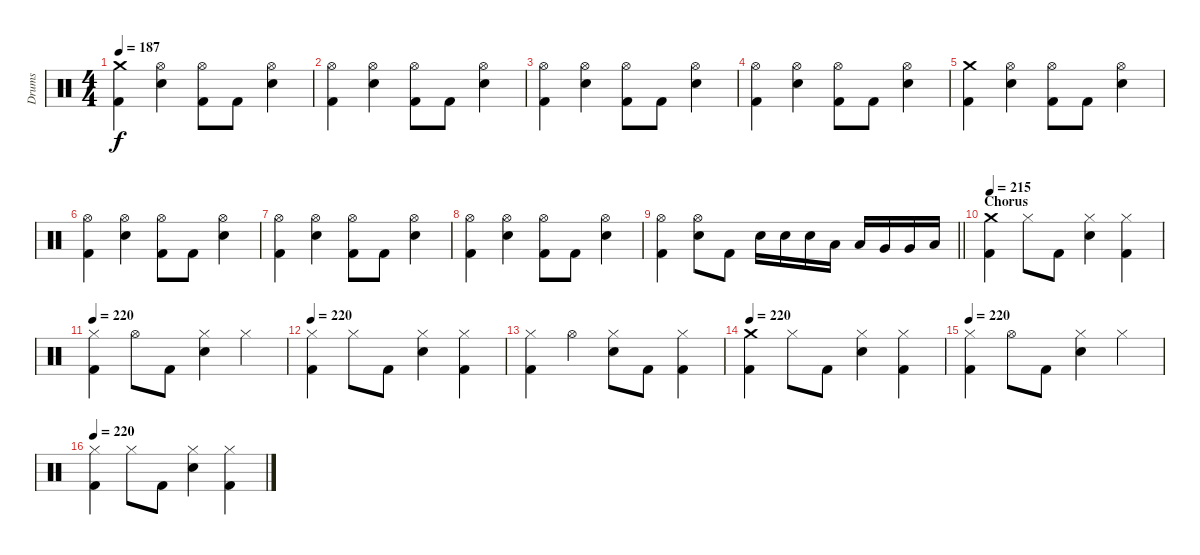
\track ("Drums" "Drums") {instrument percussion}
\staff {score}
\articulation defaults
\ts (4 4)
\tempo 187
\clef neutral
\ks c
("Crash medium (hit)" "Kick (hit) 2").4{dy f} ("Hi-Hat (open)" "Electric Snare (hit)").4 ("Hi-Hat (open)" "Kick (hit) 2").8 "Kick (hit) 2".8 ("Hi-Hat (open)" "Electric Snare (hit)").4 |
("Hi-Hat (open)" "Kick (hit) 2").4 ("Hi-Hat (open)" "Electric Snare (hit)").4 ("Hi-Hat (open)" "Kick (hit) 2").8 "Kick (hit) 2".8 ("Hi-Hat (open)" "Electric Snare (hit)").4 |
("Hi-Hat (open)" "Kick (hit) 2").4 ("Hi-Hat (open)" "Electric Snare (hit)").4 ("Hi-Hat (open)" "Kick (hit) 2").8 "Kick (hit) 2".8 ("Hi-Hat (open)" "Electric Snare (hit)").4 |
("Hi-Hat (open)" "Kick (hit) 2").4 ("Hi-Hat (open)" "Electric Snare (hit)").4 ("Hi-Hat (open)" "Kick (hit) 2").8 "Kick (hit) 2".8 ("Hi-Hat (open)" "Electric Snare (hit)").4 |
("Crash medium (hit)" "Kick (hit) 2").4 ("Hi-Hat (open)" "Electric Snare (hit)").4 ("Hi-Hat (open)" "Kick (hit) 2").8 "Kick (hit) 2".8 ("Hi-Hat (open)" "Electric Snare (hit)").4 |
("Hi-Hat (open)" "Kick (hit) 2").4 ("Hi-Hat (open)" "Electric Snare (hit)").4 ("Hi-Hat (open)" "Kick (hit) 2").8 "Kick (hit) 2".8 ("Hi-Hat (open)" "Electric Snare (hit)").4 |
("Hi-Hat (open)" "Kick (hit) 2").4 ("Hi-Hat (open)" "Electric Snare (hit)").4 ("Hi-Hat (open)" "Kick (hit) 2").8 "Kick (hit) 2".8 ("Hi-Hat (open)" "Electric Snare (hit)").4 |
("Hi-Hat (open)" "Kick (hit) 2").4 ("Hi-Hat (open)" "Electric Snare (hit)").4 ("Hi-Hat (open)" "Kick (hit) 2").8 "Kick (hit) 2".8 ("Hi-Hat (open)" "Electric Snare (hit)").4 |
\barLineRight lightlight
("Hi-Hat (open)" "Kick (hit) 2").4 ("Hi-Hat (open)" "Electric Snare (hit)").8 "Kick (hit) 2".8 "Electric Snare (hit)".16 "Electric Snare (hit)".16 "Electric Snare (hit)".16 "Low Tom (hit)".16 "Low Tom (hit)".16 "Very Low Tom (hit)".16 "Very Low Tom (hit)".16 "Low Floor Tom (hit)".16 |
\section ("" "Chorus")
\tempo 215
("Crash medium (hit)" "Kick (hit) 2").4 "Hi-Hat (closed)".8 "Kick (hit) 2".8 ("Hi-Hat (closed)" "Electric Snare (hit)").4 ("Hi-Hat (closed)" "Kick (hit) 2").4 |
\tempo 220
("Hi-Hat (closed)" "Kick (hit) 2").4 "Hi-Hat (open)".8 "Kick (hit) 2".8 ("Hi-Hat (closed)" "Electric Snare (hit)").4 "Hi-Hat (closed)".4 |
\tempo 220
("Hi-Hat (closed)" "Kick (hit) 2").4 "Hi-Hat (closed)".8 "Kick (hit) 2".8 ("Hi-Hat (closed)" "Electric Snare (hit)").4 ("Hi-Hat (closed)" "Kick (hit) 2").4 |
("Hi-Hat (closed)" "Kick (hit) 2").4 "Hi-Hat (open)".4 ("Hi-Hat (closed)" "Electric Snare (hit)").8 "Kick (hit) 2".8 ("Hi-Hat (closed)" "Kick (hit) 2").4 |
\tempo 220
("Crash medium (hit)" "Kick (hit) 2").4 "Hi-Hat (closed)".8 "Kick (hit) 2".8 ("Hi-Hat (closed)" "Electric Snare (hit)").4 ("Hi-Hat (closed)" "Kick (hit) 2").4 |
\tempo 220
("Hi-Hat (closed)" "Kick (hit) 2").4 "Hi-Hat (open)".8 "Kick (hit) 2".8 ("Hi-Hat (closed)" "Electric Snare (hit)").4 "Hi-Hat (closed)".4 |
\tempo 220
("Hi-Hat (closed)" "Kick (hit) 2").4 "Hi-Hat (closed)".8 "Kick (hit) 2".8 ("Hi-Hat (closed)" "Electric Snare (hit)").4 ("Hi-Hat (closed)" "Kick (hit) 2").4
